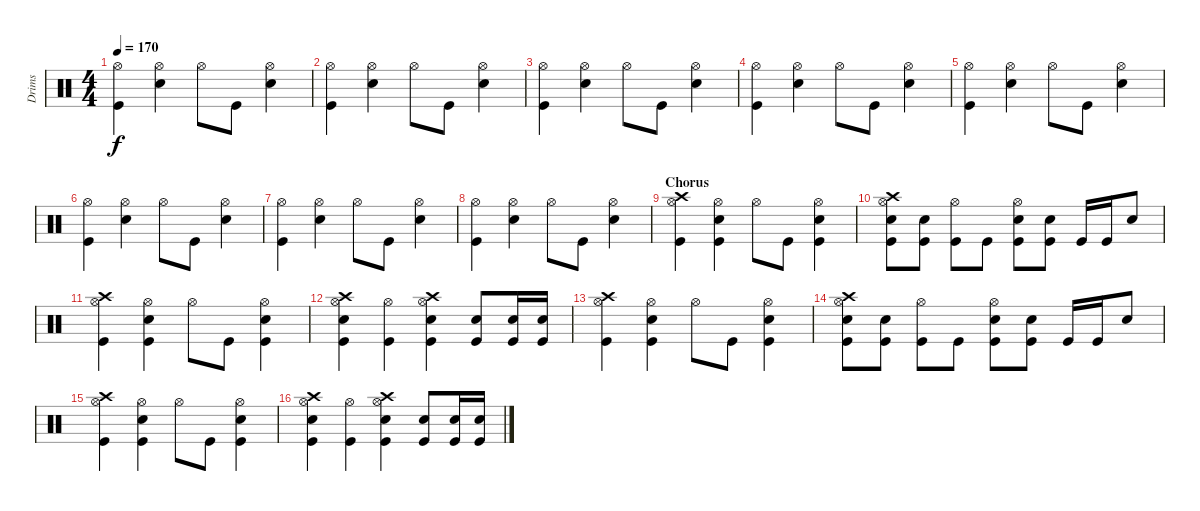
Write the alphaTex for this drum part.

\track ("Drims" "Drims") {instrument percussion}
\staff {score}
\articulation defaults
\ts (4 4)
\tempo 170
\clef neutral
\ks c
("Hi-Hat (open)" "Kick (hit)").4{dy f} ("Hi-Hat (open)" "Electric Snare (hit)").4 "Hi-Hat (open)".8 "Kick (hit)".8 ("Hi-Hat (open)" "Electric Snare (hit)").4 |
("Hi-Hat (open)" "Kick (hit)").4 ("Hi-Hat (open)" "Electric Snare (hit)").4 "Hi-Hat (open)".8 "Kick (hit)".8 ("Hi-Hat (open)" "Electric Snare (hit)").4 |
("Hi-Hat (open)" "Kick (hit)").4 ("Hi-Hat (open)" "Electric Snare (hit)").4 "Hi-Hat (open)".8 "Kick (hit)".8 ("Hi-Hat (open)" "Electric Snare (hit)").4 |
("Hi-Hat (open)" "Kick (hit)").4 ("Hi-Hat (open)" "Electric Snare (hit)").4 "Hi-Hat (open)".8 "Kick (hit)".8 ("Hi-Hat (open)" "Electric Snare (hit)").4 |
("Hi-Hat (open)" "Kick (hit)").4 ("Hi-Hat (open)" "Electric Snare (hit)").4 "Hi-Hat (open)".8 "Kick (hit)".8 ("Hi-Hat (open)" "Electric Snare (hit)").4 |
("Hi-Hat (open)" "Kick (hit)").4 ("Hi-Hat (open)" "Electric Snare (hit)").4 "Hi-Hat (open)".8 "Kick (hit)".8 ("Hi-Hat (open)" "Electric Snare (hit)").4 |
("Hi-Hat (open)" "Kick (hit)").4 ("Hi-Hat (open)" "Electric Snare (hit)").4 "Hi-Hat (open)".8 "Kick (hit)".8 ("Hi-Hat (open)" "Electric Snare (hit)").4 |
("Hi-Hat (open)" "Kick (hit)").4 ("Hi-Hat (open)" "Electric Snare (hit)").4 "Hi-Hat (open)".8 "Kick (hit)".8 ("Hi-Hat (open)" "Electric Snare (hit)").4 |
\section ("" "Chorus")
("Hi-Hat (open)" "Crash high (hit)" "Kick (hit)").4 ("Hi-Hat (open)" "Electric Snare (hit)" "Kick (hit)").4 "Hi-Hat (open)".8 "Kick (hit)".8 ("Hi-Hat (open)" "Electric Snare (hit)" "Kick (hit)").4 |
("Hi-Hat (open)" "Crash high (hit)" "Electric Snare (hit)" "Kick (hit)").8 ("Electric Snare (hit)" "Kick (hit)").8 ("Hi-Hat (open)" "Kick (hit)").8 "Kick (hit)".8 ("Hi-Hat (open)" "Electric Snare (hit)" "Kick (hit)").8 ("Electric Snare (hit)" "Kick (hit)").8 "Kick (hit)".16 "Kick (hit)".16 "Electric Snare (hit)".8 |
("Hi-Hat (open)" "Crash high (hit)" "Kick (hit)").4 ("Hi-Hat (open)" "Electric Snare (hit)" "Kick (hit)").4 "Hi-Hat (open)".8 "Kick (hit)".8 ("Hi-Hat (open)" "Electric Snare (hit)" "Kick (hit)").4 |
("Hi-Hat (open)" "Crash high (hit)" "Electric Snare (hit)" "Kick (hit)").4 ("Hi-Hat (open)" "Kick (hit)").4 ("Hi-Hat (open)" "Crash high (hit)" "Electric Snare (hit)" "Kick (hit)").4 ("Electric Snare (hit)" "Kick (hit)").8 ("Electric Snare (hit)" "Kick (hit)").16 ("Electric Snare (hit)" "Kick (hit)").16 |
("Hi-Hat (open)" "Crash high (hit)" "Kick (hit)").4 ("Hi-Hat (open)" "Electric Snare (hit)" "Kick (hit)").4 "Hi-Hat (open)".8 "Kick (hit)".8 ("Hi-Hat (open)" "Electric Snare (hit)" "Kick (hit)").4 |
("Hi-Hat (open)" "Crash high (hit)" "Electric Snare (hit)" "Kick (hit)").8 ("Electric Snare (hit)" "Kick (hit)").8 ("Hi-Hat (open)" "Kick (hit)").8 "Kick (hit)".8 ("Hi-Hat (open)" "Electric Snare (hit)" "Kick (hit)").8 ("Electric Snare (hit)" "Kick (hit)").8 "Kick (hit)".16 "Kick (hit)".16 "Electric Snare (hit)".8 |
("Hi-Hat (open)" "Crash high (hit)" "Kick (hit)").4 ("Hi-Hat (open)" "Electric Snare (hit)" "Kick (hit)").4 "Hi-Hat (open)".8 "Kick (hit)".8 ("Hi-Hat (open)" "Electric Snare (hit)" "Kick (hit)").4 |
("Hi-Hat (open)" "Crash high (hit)" "Electric Snare (hit)" "Kick (hit)").4 ("Hi-Hat (open)" "Kick (hit)").4 ("Hi-Hat (open)" "Crash high (hit)" "Electric Snare (hit)" "Kick (hit)").4 ("Electric Snare (hit)" "Kick (hit)").8 ("Electric Snare (hit)" "Kick (hit)").16 ("Electric Snare (hit)" "Kick (hit)").16
